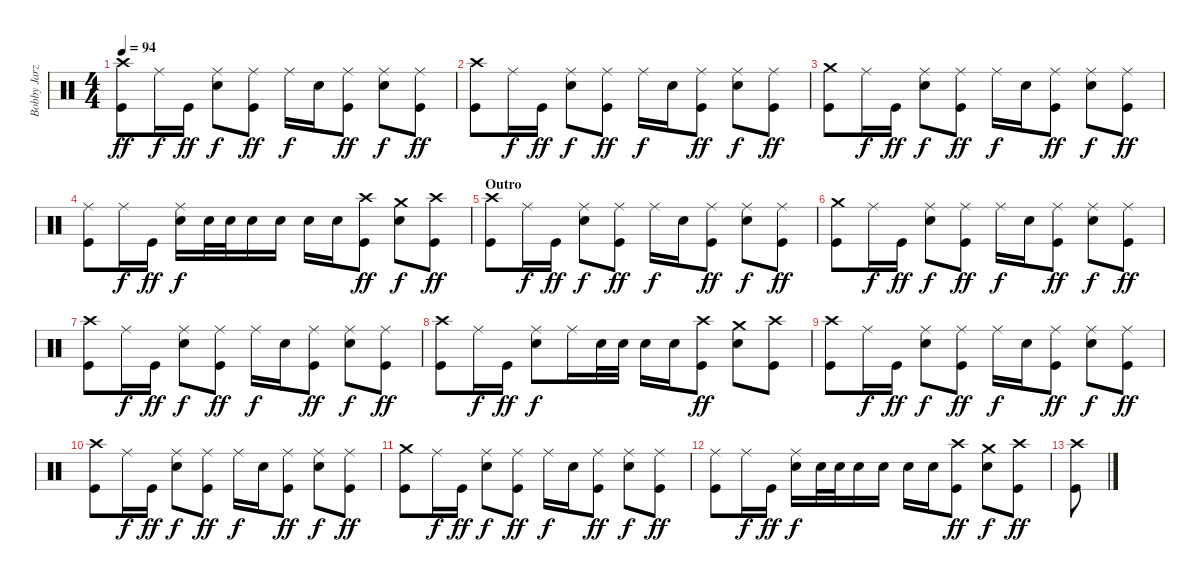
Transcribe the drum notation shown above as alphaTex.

\track ("Bobby Jarzombek" "Bobby Jarz") {instrument percussion}
\staff {score}
\articulation defaults
\ts (4 4)
\tempo 94
\clef neutral
\ks c
("Crash high (hit)" "Kick (hit)").8{dy ff} "Ride (middle)".16{dy f} "Kick (hit)".16{dy ff} ("Ride (middle)" "Electric Snare (hit)").8{dy f} ("Ride (middle)" "Kick (hit)").8{dy ff} "Ride (middle)".16{dy f} "Electric Snare (hit)".16 ("Ride (middle)" "Kick (hit)").8{dy ff} ("Ride (middle)" "Electric Snare (hit)").8{dy f} ("Ride (middle)" "Kick (hit)").8{dy ff} |
("Crash high (hit)" "Kick (hit)").8 "Ride (middle)".16{dy f} "Kick (hit)".16{dy ff} ("Ride (middle)" "Electric Snare (hit)").8{dy f} ("Ride (middle)" "Kick (hit)").8{dy ff} "Ride (middle)".16{dy f} "Electric Snare (hit)".16 ("Ride (middle)" "Kick (hit)").8{dy ff} ("Ride (middle)" "Electric Snare (hit)").8{dy f} ("Ride (middle)" "Kick (hit)").8{dy ff} |
("Crash medium (hit)" "Kick (hit)").8 "Ride (middle)".16{dy f} "Kick (hit)".16{dy ff} ("Ride (middle)" "Electric Snare (hit)").8{dy f} ("Ride (middle)" "Kick (hit)").8{dy ff} "Ride (middle)".16{dy f} "Electric Snare (hit)".16 ("Ride (middle)" "Kick (hit)").8{dy ff} ("Ride (middle)" "Electric Snare (hit)").8{dy f} ("Ride (middle)" "Kick (hit)").8{dy ff} |
("Ride (middle)" "Kick (hit)").8 "Ride (middle)".16{dy f} "Kick (hit)".16{dy ff} ("Ride (middle)" "Electric Snare (hit)").16{dy f} "Electric Snare (hit)".32 "Electric Snare (hit)".32 "Electric Snare (hit)".16 "Electric Snare (hit)".16 "Electric Snare (hit)".16 "Electric Snare (hit)".16 ("Crash high (hit)" "Kick (hit)").8{dy ff} ("Crash medium (hit)" "Electric Snare (hit)").8{dy f} ("Crash high (hit)" "Kick (hit)").8{dy ff} |
\section ("" "Outro")
("Crash high (hit)" "Kick (hit)").8 "Ride (middle)".16{dy f} "Kick (hit)".16{dy ff} ("Ride (middle)" "Electric Snare (hit)").8{dy f} ("Ride (middle)" "Kick (hit)").8{dy ff} "Ride (middle)".16{dy f} "Electric Snare (hit)".16 ("Ride (middle)" "Kick (hit)").8{dy ff} ("Ride (middle)" "Electric Snare (hit)").8{dy f} ("Ride (middle)" "Kick (hit)").8{dy ff} |
("Crash medium (hit)" "Kick (hit)").8 "Ride (middle)".16{dy f} "Kick (hit)".16{dy ff} ("Ride (middle)" "Electric Snare (hit)").8{dy f} ("Ride (middle)" "Kick (hit)").8{dy ff} "Ride (middle)".16{dy f} "Electric Snare (hit)".16 ("Ride (middle)" "Kick (hit)").8{dy ff} ("Ride (middle)" "Electric Snare (hit)").8{dy f} ("Ride (middle)" "Kick (hit)").8{dy ff} |
("Crash high (hit)" "Kick (hit)").8 "Ride (middle)".16{dy f} "Kick (hit)".16{dy ff} ("Ride (middle)" "Electric Snare (hit)").8{dy f} ("Ride (middle)" "Kick (hit)").8{dy ff} "Ride (middle)".16{dy f} "Electric Snare (hit)".16 ("Ride (middle)" "Kick (hit)").8{dy ff} ("Ride (middle)" "Electric Snare (hit)").8{dy f} ("Ride (middle)" "Kick (hit)").8{dy ff} |
("Crash high (hit)" "Kick (hit)").8 "Ride (middle)".16{dy f} "Kick (hit)".16{dy ff} ("Ride (middle)" "Electric Snare (hit)").8{dy f} "Ride (middle)".16 "Electric Snare (hit)".32 "Electric Snare (hit)".32 "Electric Snare (hit)".16 "Electric Snare (hit)".16 ("Crash high (hit)" "Kick (hit)").8{dy ff} ("Crash medium (hit)" "Electric Snare (hit)").8 ("Crash high (hit)" "Kick (hit)").8 |
("Crash high (hit)" "Kick (hit)").8 "Ride (middle)".16{dy f} "Kick (hit)".16{dy ff} ("Ride (middle)" "Electric Snare (hit)").8{dy f} ("Ride (middle)" "Kick (hit)").8{dy ff} "Ride (middle)".16{dy f} "Electric Snare (hit)".16 ("Ride (middle)" "Kick (hit)").8{dy ff} ("Ride (middle)" "Electric Snare (hit)").8{dy f} ("Ride (middle)" "Kick (hit)").8{dy ff} |
("Crash high (hit)" "Kick (hit)").8 "Ride (middle)".16{dy f} "Kick (hit)".16{dy ff} ("Ride (middle)" "Electric Snare (hit)").8{dy f} ("Ride (middle)" "Kick (hit)").8{dy ff} "Ride (middle)".16{dy f} "Electric Snare (hit)".16 ("Ride (middle)" "Kick (hit)").8{dy ff} ("Ride (middle)" "Electric Snare (hit)").8{dy f} ("Ride (middle)" "Kick (hit)").8{dy ff} |
("Crash medium (hit)" "Kick (hit)").8 "Ride (middle)".16{dy f} "Kick (hit)".16{dy ff} ("Ride (middle)" "Electric Snare (hit)").8{dy f} ("Ride (middle)" "Kick (hit)").8{dy ff} "Ride (middle)".16{dy f} "Electric Snare (hit)".16 ("Ride (middle)" "Kick (hit)").8{dy ff} ("Ride (middle)" "Electric Snare (hit)").8{dy f} ("Ride (middle)" "Kick (hit)").8{dy ff} |
("Ride (middle)" "Kick (hit)").8 "Ride (middle)".16{dy f} "Kick (hit)".16{dy ff} ("Ride (middle)" "Electric Snare (hit)").16{dy f} "Electric Snare (hit)".32 "Electric Snare (hit)".32 "Electric Snare (hit)".16 "Electric Snare (hit)".16 "Electric Snare (hit)".16 "Electric Snare (hit)".16 ("Crash high (hit)" "Kick (hit)").8{dy ff} ("Crash medium (hit)" "Electric Snare (hit)").8{dy f} ("Crash high (hit)" "Kick (hit)").8{dy ff} |
("Crash high (hit)" "Kick (hit)").8
